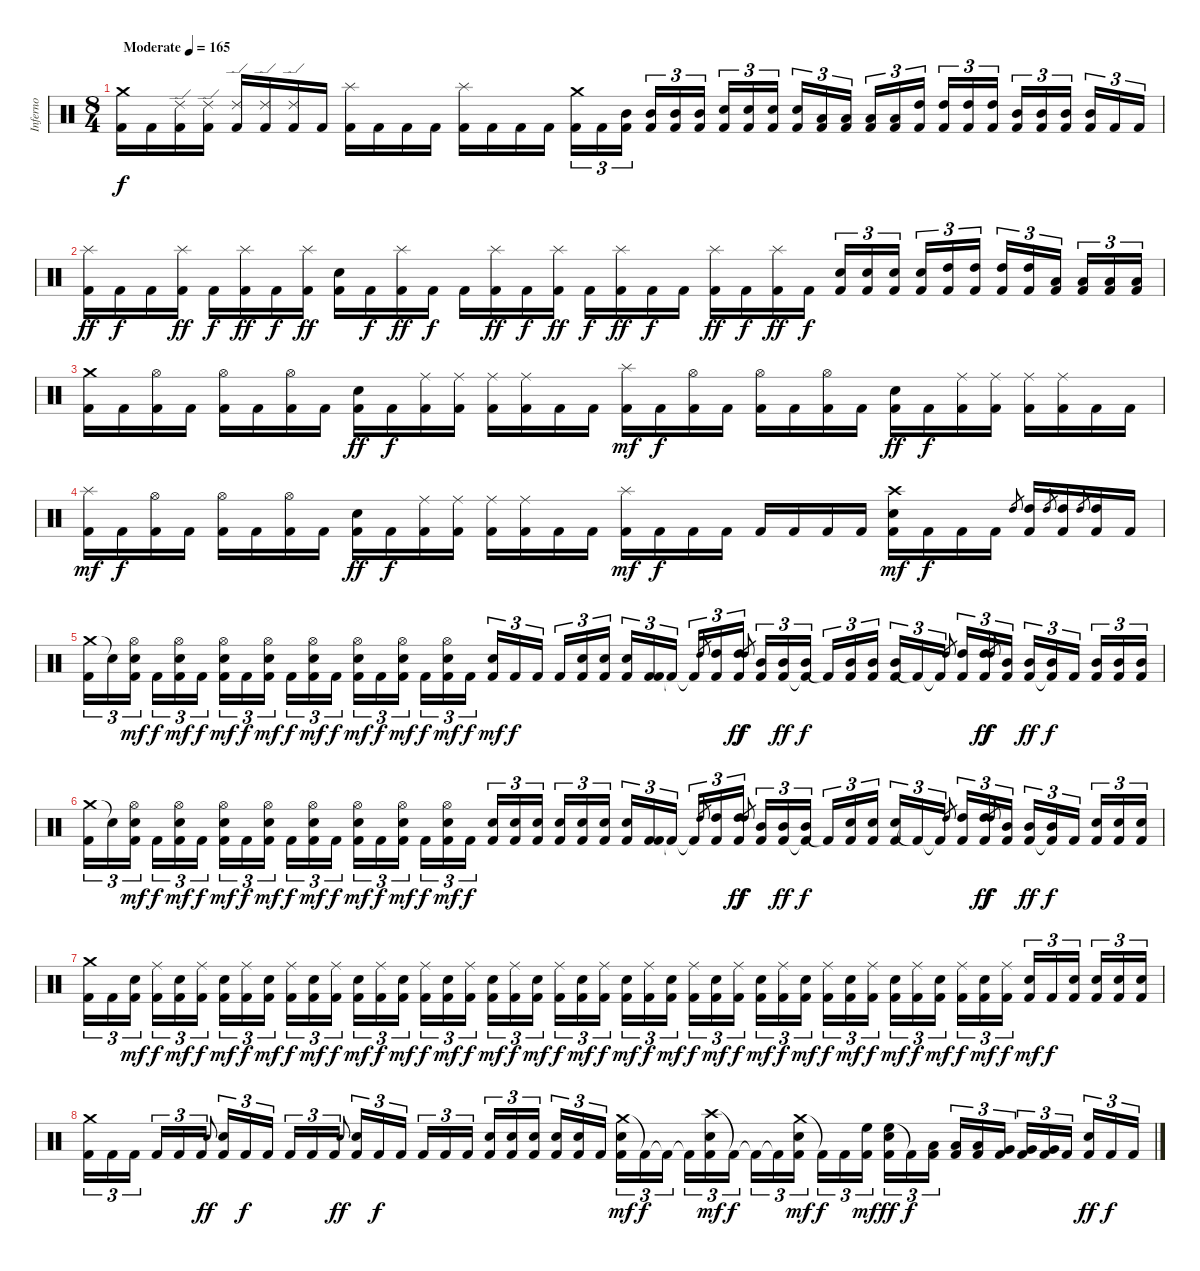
\track ("Inferno" "Inferno") {instrument percussion}
\staff {score}
\articulation defaults
\ts (8 4)
\tempo (165 "Moderate")
\clef neutral
\ks c
("Crash medium (hit)" "Kick (hit) 2").16{dy f} "Kick (hit) 2".16 ("Ride (edge) 2" "Kick (hit) 2").16 ("Ride (edge) 2" "Kick (hit) 2").16 ("Ride (edge) 2" "Kick (hit) 2").16 ("Ride (edge) 2" "Kick (hit) 2").16 ("Ride (edge) 2" "Kick (hit) 2").16 "Kick (hit) 2".16 ("Splash (hit)" "Kick (hit) 2").16 "Kick (hit) 2".16 "Kick (hit) 2".16 "Kick (hit) 2".16 ("Splash (hit)" "Kick (hit) 2").16 "Kick (hit) 2".16 "Kick (hit) 2".16 "Kick (hit) 2".16 ("Crash medium (hit)" "Kick (hit) 2").16{tu (3 2)} "Kick (hit) 2".16{tu (3 2)} ("Mid Tom (hit)" "Kick (hit) 2").16{tu (3 2) beam splitsecondary} ("Mid Tom (hit)" "Kick (hit) 2").16{tu (3 2)} ("Mid Tom (hit)" "Kick (hit) 2").16{tu (3 2)} ("Mid Tom (hit)" "Kick (hit) 2").16{tu (3 2)} ("Snare (hit) 2" "Kick (hit) 2").16{tu (3 2)} ("Snare (hit) 2" "Kick (hit) 2").16{tu (3 2)} ("Snare (hit) 2" "Kick (hit) 2").16{tu (3 2) beam splitsecondary} ("Snare (hit) 2" "Kick (hit) 2").16{tu (3 2)} ("Low Tom (hit)" "Kick (hit) 2").16{tu (3 2)} ("Low Tom (hit)" "Kick (hit) 2").16{tu (3 2)} ("Low Tom (hit)" "Kick (hit) 2").16{tu (3 2)} ("Low Tom (hit)" "Kick (hit) 2").16{tu (3 2)} ("High Tom (hit)" "Kick (hit) 2").16{tu (3 2) beam splitsecondary} ("High Tom (hit)" "Kick (hit) 2").16{tu (3 2)} ("High Tom (hit)" "Kick (hit) 2").16{tu (3 2)} ("High Tom (hit)" "Kick (hit) 2").16{tu (3 2)} ("Mid Tom (hit)" "Kick (hit) 2").16{tu (3 2)} ("Mid Tom (hit)" "Kick (hit) 2").16{tu (3 2)} ("Mid Tom (hit)" "Kick (hit) 2").16{tu (3 2) beam splitsecondary} ("Mid Tom (hit)" "Kick (hit) 2").16{tu (3 2)} "Kick (hit) 2".16{tu (3 2)} "Kick (hit) 2".16{tu (3 2)} |
("Splash (hit)" "Kick (hit) 2").16{dy ff} "Kick (hit) 2".16{dy f} "Kick (hit) 2".16 ("Splash (hit)" "Kick (hit) 2").16{dy ff} "Kick (hit) 2".16{dy f} ("Splash (hit)" "Kick (hit) 2").16{dy ff} "Kick (hit) 2".16{dy f} ("Splash (hit)" "Kick (hit) 2").16{dy ff} ("Snare (hit) 2" "Kick (hit) 2").16 "Kick (hit) 2".16{dy f} ("Splash (hit)" "Kick (hit) 2").16{dy ff} "Kick (hit) 2".16{dy f} "Kick (hit) 2".16 ("Splash (hit)" "Kick (hit) 2").16{dy ff} "Kick (hit) 2".16{dy f} ("Splash (hit)" "Kick (hit) 2").16{dy ff} "Kick (hit) 2".16{dy f} ("Splash (hit)" "Kick (hit) 2").16{dy ff} "Kick (hit) 2".16{dy f} "Kick (hit) 2".16 ("Splash (hit)" "Kick (hit) 2").16{dy ff} "Kick (hit) 2".16{dy f} ("Splash (hit)" "Kick (hit) 2").16{dy ff} "Kick (hit) 2".16{dy f} ("Snare (hit) 2" "Kick (hit) 2").16{tu (3 2)} ("Snare (hit) 2" "Kick (hit) 2").16{tu (3 2)} ("Snare (hit) 2" "Kick (hit) 2").16{tu (3 2) beam splitsecondary} ("Snare (hit) 2" "Kick (hit) 2").16{tu (3 2)} ("High Tom (hit)" "Kick (hit) 2").16{tu (3 2)} ("High Tom (hit)" "Kick (hit) 2").16{tu (3 2)} ("High Tom (hit)" "Kick (hit) 2").16{tu (3 2)} ("High Tom (hit)" "Kick (hit) 2").16{tu (3 2)} ("Low Tom (hit)" "Kick (hit) 2").16{tu (3 2) beam splitsecondary} ("Low Tom (hit)" "Kick (hit) 2").16{tu (3 2)} ("Low Tom (hit)" "Kick (hit) 2").16{tu (3 2)} ("Low Tom (hit)" "Kick (hit) 2").16{tu (3 2)} |
("Crash medium (hit)" "Kick (hit) 2").16 "Kick (hit) 2".16 ("Hi-Hat (open)" "Kick (hit) 2").16 "Kick (hit) 2".16 ("Hi-Hat (open)" "Kick (hit) 2").16 "Kick (hit) 2".16 ("Hi-Hat (open)" "Kick (hit) 2").16 "Kick (hit) 2".16 ("Snare (hit) 2" "Kick (hit) 2").16{dy ff} "Kick (hit) 2".16{dy f} ("Ride (middle)" "Kick (hit) 2").16 ("Ride (middle)" "Kick (hit) 2").16 ("Ride (middle)" "Kick (hit) 2").16 ("Ride (middle)" "Kick (hit) 2").16 "Kick (hit) 2".16 "Kick (hit) 2".16 ("Splash (hit)" "Kick (hit) 2").16{dy mf} "Kick (hit) 2".16{dy f} ("Hi-Hat (open)" "Kick (hit) 2").16 "Kick (hit) 2".16 ("Hi-Hat (open)" "Kick (hit) 2").16 "Kick (hit) 2".16 ("Hi-Hat (open)" "Kick (hit) 2").16 "Kick (hit) 2".16 ("Snare (hit) 2" "Kick (hit) 2").16{dy ff} "Kick (hit) 2".16{dy f} ("Ride (middle)" "Kick (hit) 2").16 ("Ride (middle)" "Kick (hit) 2").16 ("Ride (middle)" "Kick (hit) 2").16 ("Ride (middle)" "Kick (hit) 2").16 "Kick (hit) 2".16 "Kick (hit) 2".16 |
("Splash (hit)" "Kick (hit) 2").16{dy mf} "Kick (hit) 2".16{dy f} ("Hi-Hat (open)" "Kick (hit) 2").16 "Kick (hit) 2".16 ("Hi-Hat (open)" "Kick (hit) 2").16 "Kick (hit) 2".16 ("Hi-Hat (open)" "Kick (hit) 2").16 "Kick (hit) 2".16 ("Snare (hit) 2" "Kick (hit) 2").16{dy ff} "Kick (hit) 2".16{dy f} ("Ride (middle)" "Kick (hit) 2").16 ("Ride (middle)" "Kick (hit) 2").16 ("Ride (middle)" "Kick (hit) 2").16 ("Ride (middle)" "Kick (hit) 2").16 "Kick (hit) 2".16 "Kick (hit) 2".16 ("Splash (hit)" "Kick (hit) 2").16{dy mf} "Kick (hit) 2".16{dy f} "Kick (hit) 2".16 "Kick (hit) 2".16 "Kick (hit) 2".16 "Kick (hit) 2".16 "Kick (hit) 2".16 "Kick (hit) 2".16 ("Crash high (hit)" "Snare (hit) 2" "Kick (hit) 2").16{dy mf} "Kick (hit) 2".16{dy f} "Kick (hit) 2".16 "Kick (hit) 2".16 "High Tom (hit)".8{gr} ("High Tom (hit)" "Kick (hit) 2").16 "High Tom (hit)".8{gr} ("High Tom (hit)" "Kick (hit) 2").16 "High Tom (hit)".8{gr} ("High Tom (hit)" "Kick (hit) 2").16 "Kick (hit) 2".16 |
("Crash medium (hit)" "Kick (hit) 2").16{tu (3 2)} "Snare (hit)"{t}.16{tu (3 2)} ("Snare (hit) 2" "Hi-Hat (open)" "Kick (hit) 2").16{tu (3 2) dy mf beam splitsecondary} "Kick (hit) 2".16{tu (3 2) dy f} ("Snare (hit) 2" "Hi-Hat (open)" "Kick (hit) 2").16{tu (3 2) dy mf} "Kick (hit) 2".16{tu (3 2) dy f} ("Snare (hit) 2" "Hi-Hat (open)" "Kick (hit) 2").16{tu (3 2) dy mf} "Kick (hit) 2".16{tu (3 2) dy f} ("Snare (hit) 2" "Hi-Hat (open)" "Kick (hit) 2").16{tu (3 2) dy mf beam splitsecondary} "Kick (hit) 2".16{tu (3 2) dy f} ("Snare (hit) 2" "Hi-Hat (open)" "Kick (hit) 2").16{tu (3 2) dy mf} "Kick (hit) 2".16{tu (3 2) dy f} ("Snare (hit) 2" "Hi-Hat (open)" "Kick (hit) 2").16{tu (3 2) dy mf} "Kick (hit) 2".16{tu (3 2) dy f} ("Snare (hit) 2" "Hi-Hat (open)" "Kick (hit) 2").16{tu (3 2) dy mf beam splitsecondary} "Kick (hit) 2".16{tu (3 2) dy f} ("Snare (hit) 2" "Hi-Hat (open)" "Kick (hit) 2").16{tu (3 2) dy mf} "Kick (hit) 2".16{tu (3 2) dy f} ("Snare (hit) 2" "Kick (hit) 2").16{tu (3 2) dy mf} "Kick (hit) 2".16{tu (3 2) dy f} "Kick (hit) 2".16{tu (3 2) beam splitsecondary} "Kick (hit) 2".16{tu (3 2)} ("Snare (hit) 2" "Kick (hit) 2").16{tu (3 2)} ("Snare (hit) 2" "Kick (hit) 2").16{tu (3 2)} ("Snare (hit) 2" "Kick (hit) 2").16{tu (3 2)} ("Kick (hit) 2" "Kick (hit) 2").16{tu (3 2)} "Kick (hit) 2"{t}.16{tu (3 2) beam splitsecondary} "Kick (hit) 2"{t}.16{tu (3 2)} "High Tom (hit)".8{gr} ("High Tom (hit)" "Kick (hit) 2").16{tu (3 2)} ("High Tom (hit)" "Kick (hit) 2").16{tu (3 2) dy ff} "High Tom (hit)".8{gr dy f} ("Mid Tom (hit)" "Kick (hit) 2").16{tu (3 2)} ("Mid Tom (hit)" "Kick (hit) 2").16{tu (3 2) dy ff} ("Mid Tom (hit)" "Kick (hit) 2"{t}).16{tu (3 2) dy f beam splitsecondary} "Kick (hit) 2"{t}.16{tu (3 2)} ("Mid Tom (hit)" "Kick (hit) 2").16{tu (3 2)} ("Mid Tom (hit)" "Kick (hit) 2").16{tu (3 2)} ("Mid Tom (hit)" "Kick (hit) 2").16{tu (3 2)} "Kick (hit) 2"{t}.16{tu (3 2)} "Kick (hit) 2"{t}.16{tu (3 2)} "High Tom (hit)".8{gr beam splitsecondary} ("High Tom (hit)" "Kick (hit) 2").16{tu (3 2)} ("High Tom (hit)" "Kick (hit) 2").16{tu (3 2) dy ff} "High Tom (hit)".8{gr dy f} ("Mid Tom (hit)" "Kick (hit) 2").16{tu (3 2)} ("Mid Tom (hit)" "Kick (hit) 2").16{tu (3 2) dy ff} ("Mid Tom (hit)" "Kick (hit) 2"{t}).16{tu (3 2) dy f} "Kick (hit) 2".16{tu (3 2) beam splitsecondary} ("Mid Tom (hit)" "Kick (hit) 2").16{tu (3 2)} ("Mid Tom (hit)" "Kick (hit) 2").16{tu (3 2)} ("Mid Tom (hit)" "Kick (hit) 2").16{tu (3 2)} |
("Crash medium (hit)" "Kick (hit) 2").16{tu (3 2)} "Snare (hit)"{t}.16{tu (3 2)} ("Snare (hit) 2" "Hi-Hat (open)" "Kick (hit) 2").16{tu (3 2) dy mf beam splitsecondary} "Kick (hit) 2".16{tu (3 2) dy f} ("Snare (hit) 2" "Hi-Hat (open)" "Kick (hit) 2").16{tu (3 2) dy mf} "Kick (hit) 2".16{tu (3 2) dy f} ("Snare (hit) 2" "Hi-Hat (open)" "Kick (hit) 2").16{tu (3 2) dy mf} "Kick (hit) 2".16{tu (3 2) dy f} ("Snare (hit) 2" "Hi-Hat (open)" "Kick (hit) 2").16{tu (3 2) dy mf beam splitsecondary} "Kick (hit) 2".16{tu (3 2) dy f} ("Snare (hit) 2" "Hi-Hat (open)" "Kick (hit) 2").16{tu (3 2) dy mf} "Kick (hit) 2".16{tu (3 2) dy f} ("Snare (hit) 2" "Hi-Hat (open)" "Kick (hit) 2").16{tu (3 2) dy mf} "Kick (hit) 2".16{tu (3 2) dy f} ("Snare (hit) 2" "Hi-Hat (open)" "Kick (hit) 2").16{tu (3 2) dy mf beam splitsecondary} "Kick (hit) 2".16{tu (3 2) dy f} ("Snare (hit) 2" "Hi-Hat (open)" "Kick (hit) 2").16{tu (3 2) dy mf} "Kick (hit) 2".16{tu (3 2) dy f} ("Snare (hit) 2" "Kick (hit) 2").16{tu (3 2)} ("Snare (hit) 2" "Kick (hit) 2").16{tu (3 2)} ("Snare (hit) 2" "Kick (hit) 2").16{tu (3 2) beam splitsecondary} ("Snare (hit) 2" "Kick (hit) 2").16{tu (3 2)} ("Snare (hit) 2" "Kick (hit) 2").16{tu (3 2)} ("Snare (hit) 2" "Kick (hit) 2").16{tu (3 2)} ("Snare (hit) 2" "Kick (hit) 2").16{tu (3 2)} ("Kick (hit) 2" "Kick (hit) 2").16{tu (3 2)} "Kick (hit) 2"{t}.16{tu (3 2) beam splitsecondary} "Kick (hit) 2"{t}.16{tu (3 2)} "High Tom (hit)".8{gr} ("High Tom (hit)" "Kick (hit) 2").16{tu (3 2)} ("High Tom (hit)" "Kick (hit) 2").16{tu (3 2) dy ff} "High Tom (hit)".8{gr dy f} ("Mid Tom (hit)" "Kick (hit) 2").16{tu (3 2)} ("Mid Tom (hit)" "Kick (hit) 2").16{tu (3 2) dy ff} ("Mid Tom (hit)" "Kick (hit) 2"{t}).16{tu (3 2) dy f beam splitsecondary} "Kick (hit) 2"{t}.16{tu (3 2)} ("Snare (hit) 2" "Kick (hit) 2").16{tu (3 2)} ("Snare (hit) 2" "Kick (hit) 2").16{tu (3 2)} ("Snare (hit) 2" "Kick (hit) 2").16{tu (3 2)} "Kick (hit) 2"{t}.16{tu (3 2)} "Kick (hit) 2"{t}.16{tu (3 2)} "High Tom (hit)".8{gr beam splitsecondary} ("High Tom (hit)" "Kick (hit) 2").16{tu (3 2)} ("High Tom (hit)" "Kick (hit) 2").16{tu (3 2) dy ff} "High Tom (hit)".8{gr dy f} ("Mid Tom (hit)" "Kick (hit) 2").16{tu (3 2)} ("Mid Tom (hit)" "Kick (hit) 2").16{tu (3 2) dy ff} ("Mid Tom (hit)" "Kick (hit) 2"{t}).16{tu (3 2) dy f} "Kick (hit) 2".16{tu (3 2) beam splitsecondary} ("Snare (hit) 2" "Kick (hit) 2").16{tu (3 2)} ("Snare (hit) 2" "Kick (hit) 2").16{tu (3 2)} ("Snare (hit) 2" "Kick (hit) 2").16{tu (3 2)} |
("Crash medium (hit)" "Kick (hit) 2").16{tu (3 2)} "Kick (hit) 2".16{tu (3 2)} ("Snare (hit) 2" "Kick (hit) 2").16{tu (3 2) dy mf beam splitsecondary} ("Ride (middle)" "Kick (hit) 2").16{tu (3 2) dy f} ("Snare (hit) 2" "Kick (hit) 2").16{tu (3 2) dy mf} ("Ride (middle)" "Kick (hit) 2").16{tu (3 2) dy f} ("Snare (hit) 2" "Kick (hit) 2").16{tu (3 2) dy mf} ("Ride (middle)" "Kick (hit) 2").16{tu (3 2) dy f} ("Snare (hit) 2" "Kick (hit) 2").16{tu (3 2) dy mf beam splitsecondary} ("Ride (middle)" "Kick (hit) 2").16{tu (3 2) dy f} ("Snare (hit) 2" "Kick (hit) 2").16{tu (3 2) dy mf} ("Ride (middle)" "Kick (hit) 2").16{tu (3 2) dy f} ("Snare (hit) 2" "Kick (hit) 2").16{tu (3 2) dy mf} ("Ride (middle)" "Kick (hit) 2").16{tu (3 2) dy f} ("Snare (hit) 2" "Kick (hit) 2").16{tu (3 2) dy mf beam splitsecondary} ("Ride (middle)" "Kick (hit) 2").16{tu (3 2) dy f} ("Snare (hit) 2" "Kick (hit) 2").16{tu (3 2) dy mf} ("Ride (middle)" "Kick (hit) 2").16{tu (3 2) dy f} ("Snare (hit) 2" "Kick (hit) 2").16{tu (3 2) dy mf} ("Ride (middle)" "Kick (hit) 2").16{tu (3 2) dy f} ("Snare (hit) 2" "Kick (hit) 2").16{tu (3 2) dy mf beam splitsecondary} ("Ride (middle)" "Kick (hit) 2").16{tu (3 2) dy f} ("Snare (hit) 2" "Kick (hit) 2").16{tu (3 2) dy mf} ("Ride (middle)" "Kick (hit) 2").16{tu (3 2) dy f} ("Snare (hit) 2" "Kick (hit) 2").16{tu (3 2) dy mf} ("Ride (middle)" "Kick (hit) 2").16{tu (3 2) dy f} ("Snare (hit) 2" "Kick (hit) 2").16{tu (3 2) dy mf beam splitsecondary} ("Ride (middle)" "Kick (hit) 2").16{tu (3 2) dy f} ("Snare (hit) 2" "Kick (hit) 2").16{tu (3 2) dy mf} ("Ride (middle)" "Kick (hit) 2").16{tu (3 2) dy f} ("Snare (hit) 2" "Kick (hit) 2").16{tu (3 2) dy mf} ("Ride (middle)" "Kick (hit) 2").16{tu (3 2) dy f} ("Snare (hit) 2" "Kick (hit) 2").16{tu (3 2) dy mf beam splitsecondary} ("Ride (middle)" "Kick (hit) 2").16{tu (3 2) dy f} ("Snare (hit) 2" "Kick (hit) 2").16{tu (3 2) dy mf} ("Ride (middle)" "Kick (hit) 2").16{tu (3 2) dy f} ("Snare (hit) 2" "Kick (hit) 2").16{tu (3 2) dy mf} ("Ride (middle)" "Kick (hit) 2").16{tu (3 2) dy f} ("Snare (hit) 2" "Kick (hit) 2").16{tu (3 2) dy mf beam splitsecondary} ("Ride (middle)" "Kick (hit) 2").16{tu (3 2) dy f} ("Snare (hit) 2" "Kick (hit) 2").16{tu (3 2) dy mf} ("Ride (middle)" "Kick (hit) 2").16{tu (3 2) dy f} ("Snare (hit) 2" "Kick (hit) 2").16{tu (3 2) dy mf} "Kick (hit) 2".16{tu (3 2) dy f} ("Snare (hit) 2" "Kick (hit) 2").16{tu (3 2) beam splitsecondary} ("Snare (hit) 2" "Kick (hit) 2").16{tu (3 2)} ("Snare (hit) 2" "Kick (hit) 2").16{tu (3 2)} ("Snare (hit) 2" "Kick (hit) 2").16{tu (3 2)} |
("Crash medium (hit)" "Kick (hit) 2").16{tu (3 2)} "Kick (hit) 2".16{tu (3 2)} "Kick (hit) 2".16{tu (3 2) beam splitsecondary} "Kick (hit) 2".16{tu (3 2)} "Kick (hit) 2".16{tu (3 2)} "Kick (hit) 2".16{tu (3 2)} "Snare (hit) 2".8{gr onbeat dy ff} ("Snare (hit) 2" "Kick (hit) 2").16{tu (3 2)} "Kick (hit) 2".16{tu (3 2) dy f} "Kick (hit) 2".16{tu (3 2) beam splitsecondary} "Kick (hit) 2".16{tu (3 2)} "Kick (hit) 2".16{tu (3 2)} "Kick (hit) 2".16{tu (3 2)} "Snare (hit) 2".8{gr onbeat dy ff} ("Snare (hit) 2" "Kick (hit) 2").16{tu (3 2)} "Kick (hit) 2".16{tu (3 2) dy f} "Kick (hit) 2".16{tu (3 2) beam splitsecondary} "Kick (hit) 2".16{tu (3 2)} "Kick (hit) 2".16{tu (3 2)} "Kick (hit) 2".16{tu (3 2)} ("Snare (hit) 2" "Kick (hit) 2").16{tu (3 2)} ("Snare (hit) 2" "Kick (hit) 2").16{tu (3 2)} ("Snare (hit) 2" "Kick (hit) 2").16{tu (3 2) beam splitsecondary} ("Snare (hit) 2" "Kick (hit) 2").16{tu (3 2)} ("Snare (hit) 2" "Kick (hit) 2").16{tu (3 2)} "Kick (hit) 2".16{tu (3 2)} ("Crash medium (hit)" "Snare (hit) 2" "Kick (hit) 2").16{tu (3 2) dy mf} "Kick (hit) 2"{t}.16{tu (3 2) dy f} "Kick (hit) 2"{t}.16{tu (3 2) beam splitsecondary} "Kick (hit) 2"{t}.16{tu (3 2)} ("Crash high (hit)" "Snare (hit) 2" "Kick (hit) 2").16{tu (3 2) dy mf} "Kick (hit) 2"{t}.16{tu (3 2) dy f} "Kick (hit) 2"{t}.16{tu (3 2)} "Kick (hit) 2"{t}.16{tu (3 2)} ("Crash medium (hit)" "Snare (hit) 2" "Kick (hit) 2").16{tu (3 2) dy mf beam splitsecondary} "Kick (hit) 2"{t}.16{tu (3 2) dy f} "Kick (hit) 2".16{tu (3 2)} ("High Floor Tom (hit)" "Kick (hit) 2").16{tu (3 2) dy mf} ("High Floor Tom (hit)" "Snare (hit) 2" "Kick (hit) 2").16{tu (3 2) dy ff} "Kick (hit) 2"{t}.16{tu (3 2) dy f} ("Low Tom (hit)" "Kick (hit) 2").16{tu (3 2) beam splitsecondary} ("Low Tom (hit)" "Kick (hit) 2").16{tu (3 2)} ("Low Tom (hit)" "Kick (hit) 2").16{tu (3 2)} ("Very Low Tom (hit)" "Kick (hit) 2").16{tu (3 2)} ("Very Low Tom (hit)" "Kick (hit) 2").16{tu (3 2)} ("Very Low Tom (hit)" "Kick (hit) 2").16{tu (3 2)} "Kick (hit) 2".16{tu (3 2) beam splitsecondary} ("Snare (hit) 2" "Kick (hit) 2").16{tu (3 2) dy ff} "Kick (hit) 2".16{tu (3 2) dy f} "Kick (hit) 2".16{tu (3 2)}
